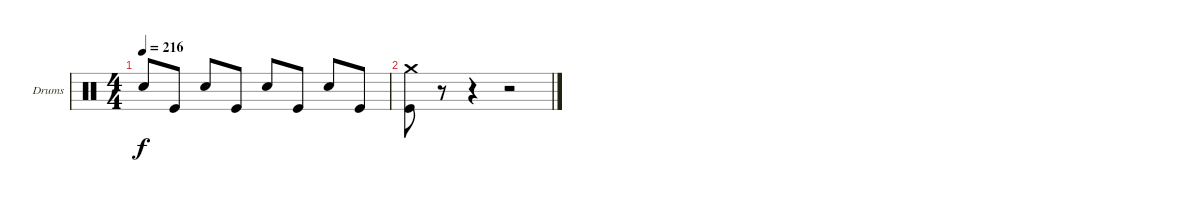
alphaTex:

\defaultSystemsLayout 4
\bracketExtendMode groupsimilarinstruments
\firstSystemTrackNameOrientation horizontal
\otherSystemsTrackNameOrientation horizontal
\track ("Drumkit" "Drums") {instrument percussion}
\staff {score}
\articulation defaults
\ts (4 4)
\tempo 216
\clef neutral
\ks c "Snare (hit) 2".8{dy f} "Kick (hit)".8 "Snare (hit) 2".8 "Kick (hit)".8 "Snare (hit) 2".8 "Kick (hit)".8 "Snare (hit) 2".8 "Kick (hit)".8
|
("Crash medium (hit)" "Kick (hit)").8 r.8 r.4 r.2
